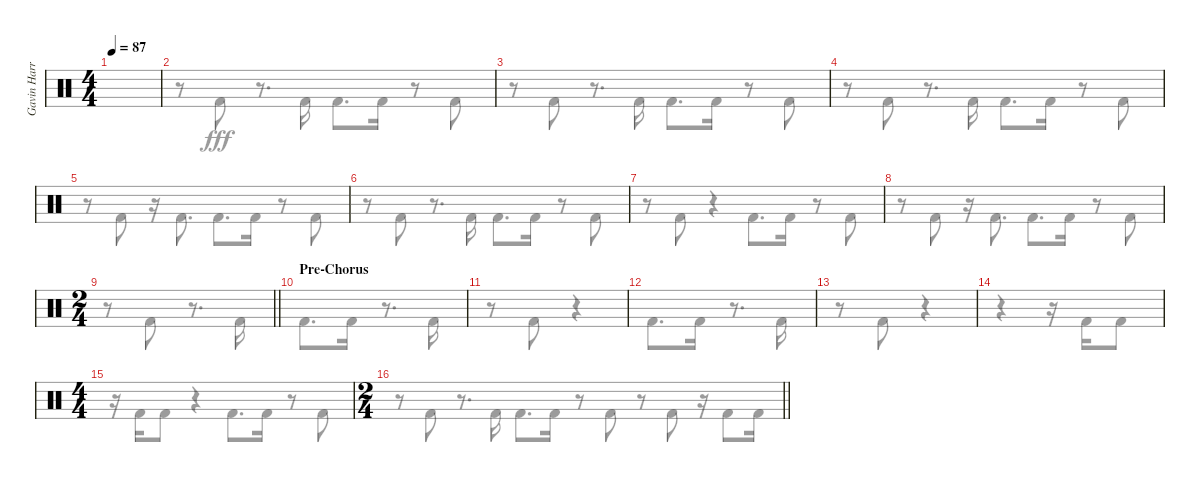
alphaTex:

\track ("Gavin Harrison Bass Pedal" "Gavin Harr") {instrument percussion}
\staff {score}
\articulation defaults
\voice
\ts (4 4)
\tempo 87
\clef neutral
\ks aminor
|
|
|
|
|
|
|
|
\ts (2 4)
\barLineRight lightlight
|
\section ("" "Pre-Chorus")
|
|
|
|
|
\ts (4 4)
|
\ts (2 4)
\barLineRight lightlight
\voice
\clef neutral
\ks aminor
r.8{dy fff} "Kick (hit) 2".8 r.8{d} "Kick (hit) 2".16 "Kick (hit) 2".8{d} "Kick (hit) 2".16 r.8 "Kick (hit) 2".8 |
r.8 "Kick (hit) 2".8 r.8{d} "Kick (hit) 2".16 "Kick (hit) 2".8{d} "Kick (hit) 2".16 r.8 "Kick (hit) 2".8 |
r.8 "Kick (hit) 2".8 r.8{d} "Kick (hit) 2".16 "Kick (hit) 2".8{d} "Kick (hit) 2".16 r.8 "Kick (hit) 2".8 |
r.8 "Kick (hit) 2".8 r.8{d} "Kick (hit) 2".16 "Kick (hit) 2".8{d} "Kick (hit) 2".16 r.8 "Kick (hit) 2".8 |
r.8 "Kick (hit) 2".8 r.16 "Kick (hit) 2".8{d} "Kick (hit) 2".8{d} "Kick (hit) 2".16 r.8 "Kick (hit) 2".8 |
r.8 "Kick (hit) 2".8 r.8{d} "Kick (hit) 2".16 "Kick (hit) 2".8{d} "Kick (hit) 2".16 r.8 "Kick (hit) 2".8 |
r.8 "Kick (hit) 2".8 r.4 "Kick (hit) 2".8{d} "Kick (hit) 2".16 r.8 "Kick (hit) 2".8 |
r.8 "Kick (hit) 2".8 r.16 "Kick (hit) 2".8{d} "Kick (hit) 2".8{d} "Kick (hit) 2".16 r.8 "Kick (hit) 2".8 |
\barLineRight lightlight
r.8 "Kick (hit) 2".8 r.8{d} "Kick (hit) 2".16 |
"Kick (hit) 2".8{d} "Kick (hit) 2".16 r.8{d} "Kick (hit) 2".16 |
r.8 "Kick (hit) 2".8 r.4 |
"Kick (hit) 2".8{d} "Kick (hit) 2".16 r.8{d} "Kick (hit) 2".16 |
r.8 "Kick (hit) 2".8 r.4 |
r.4 r.16 "Kick (hit) 2".16 "Kick (hit) 2".8 |
r.16 "Kick (hit) 2".16 "Kick (hit) 2".8 r.4 "Kick (hit) 2".8{d} "Kick (hit) 2".16 r.8 "Kick (hit) 2".8 |
\barLineRight lightlight
r.8 "Kick (hit) 2".8 r.16 "Kick (hit) 2".8 "Kick (hit) 2".16
